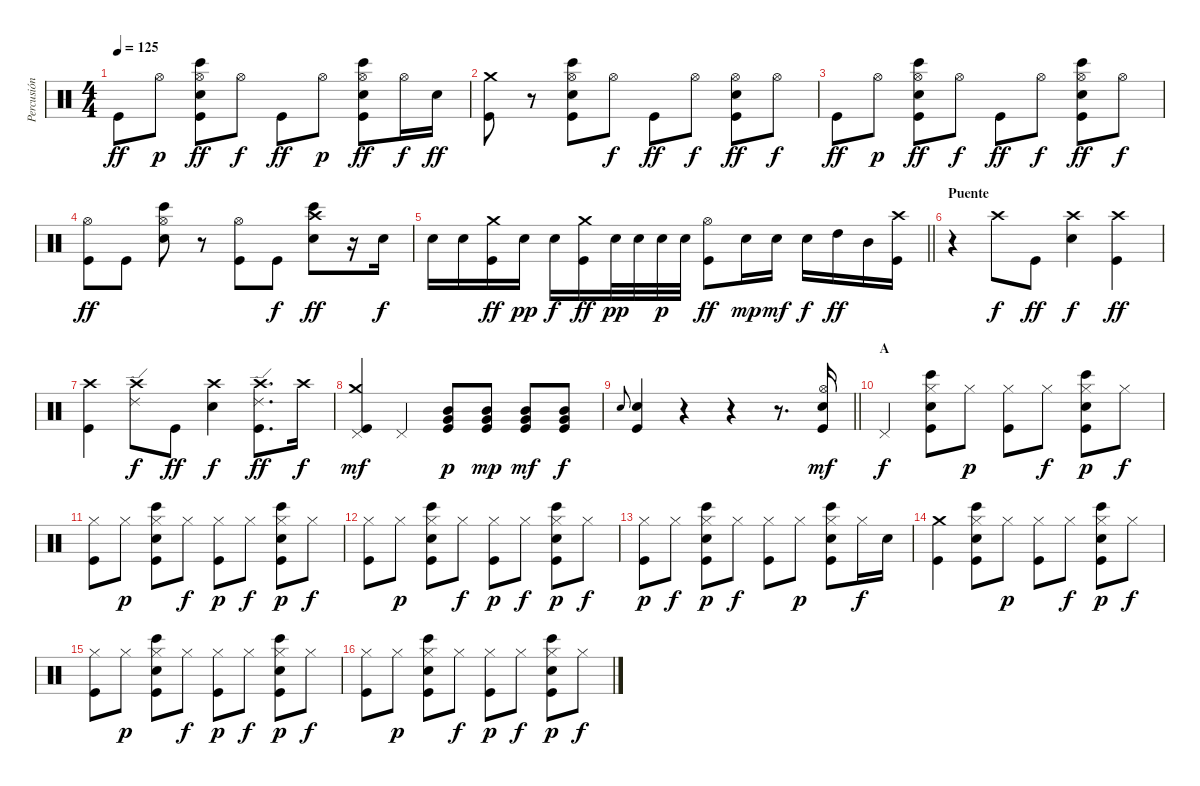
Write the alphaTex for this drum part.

\track ("Percusión" "Percusión") {instrument percussion}
\staff {score}
\articulation defaults
\ts (4 4)
\tempo 125
\clef neutral
\ks c "Kick (hit)".8{dy ff} "Hi-Hat (open)".8{dy p}
("Hi-Hat (open)" "Bongo High (hit)" "Snare (hit) 2" "Kick (hit)").8{dy ff} "Hi-Hat (open)".8{dy f} "Kick (hit)".8{dy ff} "Hi-Hat (open)".8{dy p} ("Hi-Hat (open)" "Bongo High (hit)" "Snare (hit) 2" "Kick (hit)").8{dy ff} "Hi-Hat (open)".16{dy f} "Snare (hit) 2".16{dy ff} |
("Crash medium (hit)" "Kick (hit)").8 r.8 ("Hi-Hat (open)" "Bongo High (hit)" "Snare (hit) 2" "Kick (hit)").8 "Hi-Hat (open)".8{dy f} "Kick (hit)".8{dy ff} "Hi-Hat (open)".8{dy f} ("Hi-Hat (open)" "Snare (hit) 2" "Kick (hit)").8{dy ff} "Hi-Hat (open)".8{dy f} |
"Kick (hit)".8{dy ff} "Hi-Hat (open)".8{dy p} ("Hi-Hat (open)" "Bongo High (hit)" "Snare (hit) 2" "Kick (hit)").8{dy ff} "Hi-Hat (open)".8{dy f} "Kick (hit)".8{dy ff} "Hi-Hat (open)".8{dy f} ("Hi-Hat (open)" "Bongo High (hit)" "Snare (hit) 2" "Kick (hit)").8{dy ff} "Hi-Hat (open)".8{dy f} |
("Hi-Hat (open)" "Kick (hit)").8{dy ff} "Kick (hit)".8 ("Hi-Hat (open)" "Bongo High (hit)" "Snare (hit) 2").8 r.8 ("Hi-Hat (open)" "Kick (hit)").8 "Kick (hit)".8{dy f} ("Crash high (hit)" "Bongo High (hit)" "Snare (hit) 2").8{dy ff} r.16 "Snare (hit) 2".16{dy f} |
\barLineRight lightlight "Snare (hit) 2".16 "Snare (hit) 2".16
("Crash medium (hit)" "Kick (hit)").16{dy ff} "Snare (hit) 2".16{dy pp} "Snare (hit) 2".16{dy f} ("Crash medium (hit)" "Kick (hit)").16{dy ff} "Snare (hit) 2".32{dy pp} "Snare (hit) 2".32 "Snare (hit) 2".32{dy p} "Snare (hit) 2".32 ("Hi-Hat (open)" "Kick (hit)").8{dy ff} "Snare (hit) 2".16{dy mp} "Snare (hit) 2".16{dy mf} "Snare (hit) 2".16{dy f} "High Tom (hit)".16{dy ff} "Mid Tom (hit)".16 ("Crash high (hit)" "Kick (hit)").16 |
\section ("" "Puente")
r.4 "Crash high (hit)".8{dy f} "Kick (hit)".8{dy ff} ("Crash high (hit)" "Snare (hit) 2").4{dy f} ("Crash high (hit)" "Kick (hit)").4{dy ff} |
("Crash high (hit)" "Kick (hit)").4 ("Crash high (hit)" "Ride (edge) 2").8{dy f} "Kick (hit)".8{dy ff} ("Crash high (hit)" "Snare (hit) 2").4{dy f} ("Crash high (hit)" "Ride (edge) 2" "Kick (hit)").8{d dy ff} "Crash high (hit)".16{dy f} |
("Crash medium (hit)" "Pedal Hi-Hat (hit)" "Kick (hit)").4{dy mf} "Pedal Hi-Hat (hit)".4 ("Mid Tom (hit)" "Very Low Tom (hit)" "Kick (hit)").8{dy p} ("Mid Tom (hit)" "Very Low Tom (hit)" "Kick (hit)").8{dy mp} ("Mid Tom (hit)" "Very Low Tom (hit)" "Kick (hit)").8{dy mf} ("Mid Tom (hit)" "Very Low Tom (hit)" "Kick (hit)").8{dy f} |
\barLineRight lightlight "Snare (hit) 2".8{gr onbeat}
("Snare (hit) 2" "Kick (hit)").4 r.4 r.4 r.8{d} ("Hi-Hat (open)" "Snare (hit) 2" "Kick (hit)").16{dy mf} |
\section ("" "A")
"Pedal Hi-Hat (hit)".4{dy f} ("Hi-Hat (closed)" "Bongo High (hit)" "Snare (hit) 2" "Kick (hit)").8 "Hi-Hat (closed)".8{dy p} ("Hi-Hat (closed)" "Kick (hit)").8 "Hi-Hat (closed)".8{dy f} ("Hi-Hat (closed)" "Bongo High (hit)" "Snare (hit) 2" "Kick (hit)").8{dy p} "Hi-Hat (closed)".8{dy f} |
("Hi-Hat (closed)" "Kick (hit)").8 "Hi-Hat (closed)".8{dy p} ("Hi-Hat (closed)" "Bongo High (hit)" "Snare (hit) 2" "Kick (hit)").8 "Hi-Hat (closed)".8{dy f} ("Hi-Hat (closed)" "Kick (hit)").8{dy p} "Hi-Hat (closed)".8{dy f} ("Hi-Hat (closed)" "Bongo High (hit)" "Snare (hit) 2" "Kick (hit)").8{dy p} "Hi-Hat (closed)".8{dy f} |
("Hi-Hat (closed)" "Kick (hit)").8 "Hi-Hat (closed)".8{dy p} ("Hi-Hat (closed)" "Bongo High (hit)" "Snare (hit) 2" "Kick (hit)").8 "Hi-Hat (closed)".8{dy f} ("Hi-Hat (closed)" "Kick (hit)").8{dy p} "Hi-Hat (closed)".8{dy f} ("Hi-Hat (closed)" "Bongo High (hit)" "Snare (hit) 2" "Kick (hit)").8{dy p} "Hi-Hat (closed)".8{dy f} |
("Hi-Hat (closed)" "Kick (hit)").8{dy p} "Hi-Hat (closed)".8{dy f} ("Hi-Hat (closed)" "Bongo High (hit)" "Snare (hit) 2" "Kick (hit)").8{dy p} "Hi-Hat (closed)".8{dy f} ("Hi-Hat (closed)" "Kick (hit)").8 "Hi-Hat (closed)".8{dy p} ("Hi-Hat (closed)" "Bongo High (hit)" "Snare (hit) 2" "Kick (hit)").8 "Hi-Hat (closed)".16{dy f} "Snare (hit) 2".16 |
("Crash medium (hit)" "Kick (hit)").4 ("Hi-Hat (closed)" "Bongo High (hit)" "Snare (hit) 2" "Kick (hit)").8 "Hi-Hat (closed)".8{dy p} ("Hi-Hat (closed)" "Kick (hit)").8 "Hi-Hat (closed)".8{dy f} ("Hi-Hat (closed)" "Bongo High (hit)" "Snare (hit) 2" "Kick (hit)").8{dy p} "Hi-Hat (closed)".8{dy f} |
("Hi-Hat (closed)" "Kick (hit)").8 "Hi-Hat (closed)".8{dy p} ("Hi-Hat (closed)" "Bongo High (hit)" "Snare (hit) 2" "Kick (hit)").8 "Hi-Hat (closed)".8{dy f} ("Hi-Hat (closed)" "Kick (hit)").8{dy p} "Hi-Hat (closed)".8{dy f} ("Hi-Hat (closed)" "Bongo High (hit)" "Snare (hit) 2" "Kick (hit)").8{dy p} "Hi-Hat (closed)".8{dy f} |
("Hi-Hat (closed)" "Kick (hit)").8 "Hi-Hat (closed)".8{dy p} ("Hi-Hat (closed)" "Bongo High (hit)" "Snare (hit) 2" "Kick (hit)").8 "Hi-Hat (closed)".8{dy f} ("Hi-Hat (closed)" "Kick (hit)").8{dy p} "Hi-Hat (closed)".8{dy f} ("Hi-Hat (closed)" "Bongo High (hit)" "Snare (hit) 2" "Kick (hit)").8{dy p} "Hi-Hat (closed)".8{dy f}
